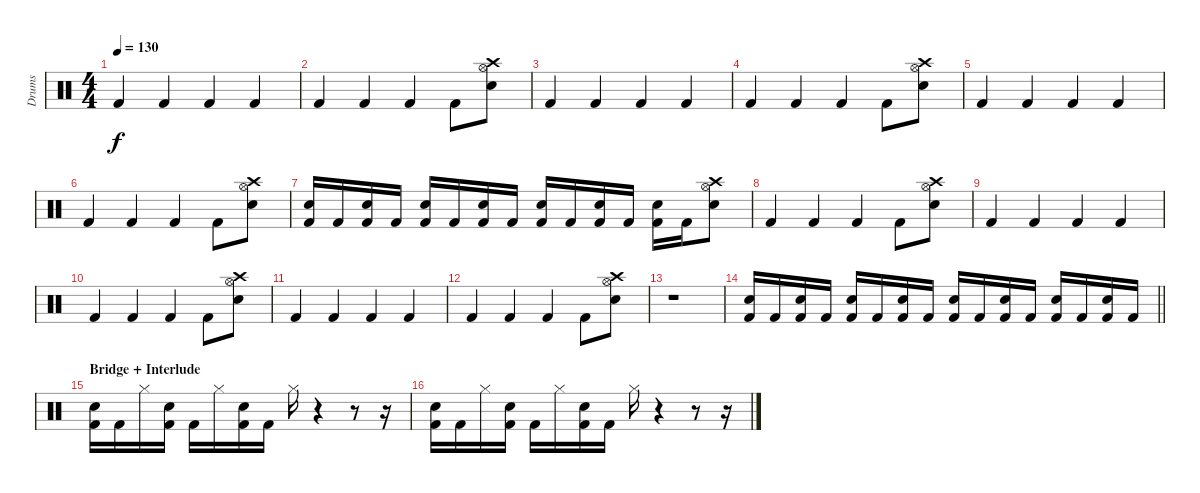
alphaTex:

\track ("Drums" "Drums") {instrument percussion}
\staff
\articulation defaults
\ts (4 4)
\tempo 130
\clef neutral
\ks c "Kick (hit) 2".4{dy f} "Kick (hit) 2".4 "Kick (hit) 2".4 "Kick (hit) 2".4
|
"Kick (hit) 2".4 "Kick (hit) 2".4 "Kick (hit) 2".4 "Kick (hit) 2".8 ("Crash high (hit)" "Snare (hit) 2" "Hi-Hat (open)").8 |
"Kick (hit) 2".4 "Kick (hit) 2".4 "Kick (hit) 2".4 "Kick (hit) 2".4 |
"Kick (hit) 2".4 "Kick (hit) 2".4 "Kick (hit) 2".4 "Kick (hit) 2".8 ("Crash high (hit)" "Snare (hit) 2" "Hi-Hat (open)").8 |
"Kick (hit) 2".4 "Kick (hit) 2".4 "Kick (hit) 2".4 "Kick (hit) 2".4 |
"Kick (hit) 2".4 "Kick (hit) 2".4 "Kick (hit) 2".4 "Kick (hit) 2".8 ("Crash high (hit)" "Snare (hit) 2" "Hi-Hat (open)").8 |
("Snare (hit) 2" "Kick (hit) 2").16 "Kick (hit) 2".16 ("Snare (hit) 2" "Kick (hit) 2").16 "Kick (hit) 2".16 ("Snare (hit) 2" "Kick (hit) 2").16 "Kick (hit) 2".16 ("Snare (hit) 2" "Kick (hit) 2").16 "Kick (hit) 2".16 ("Snare (hit) 2" "Kick (hit) 2").16 "Kick (hit) 2".16 ("Snare (hit) 2" "Kick (hit) 2").16 "Kick (hit) 2".16 ("Snare (hit) 2" "Kick (hit) 2").16 "Kick (hit) 2".16 ("Crash high (hit)" "Snare (hit) 2" "Hi-Hat (open)").8 |
"Kick (hit) 2".4 "Kick (hit) 2".4 "Kick (hit) 2".4 "Kick (hit) 2".8 ("Crash high (hit)" "Snare (hit) 2" "Hi-Hat (open)").8 |
"Kick (hit) 2".4 "Kick (hit) 2".4 "Kick (hit) 2".4 "Kick (hit) 2".4 |
"Kick (hit) 2".4 "Kick (hit) 2".4 "Kick (hit) 2".4 "Kick (hit) 2".8 ("Crash high (hit)" "Snare (hit) 2" "Hi-Hat (open)").8 |
"Kick (hit) 2".4 "Kick (hit) 2".4 "Kick (hit) 2".4 "Kick (hit) 2".4 |
"Kick (hit) 2".4 "Kick (hit) 2".4 "Kick (hit) 2".4 "Kick (hit) 2".8 ("Crash high (hit)" "Snare (hit) 2" "Hi-Hat (open)").8 |
r.1 |
\barLineRight lightlight
("Snare (hit) 2" "Kick (hit) 2").16 "Kick (hit) 2".16 ("Snare (hit) 2" "Kick (hit) 2").16 "Kick (hit) 2".16 ("Snare (hit) 2" "Kick (hit) 2").16 "Kick (hit) 2".16 ("Snare (hit) 2" "Kick (hit) 2").16 "Kick (hit) 2".16 ("Snare (hit) 2" "Kick (hit) 2").16 "Kick (hit) 2".16 ("Snare (hit) 2" "Kick (hit) 2").16 "Kick (hit) 2".16 ("Snare (hit) 2" "Kick (hit) 2").16 "Kick (hit) 2".16 ("Snare (hit) 2" "Kick (hit) 2").16 "Kick (hit) 2".16 |
\section ("" "Bridge + Interlude")
("Snare (hit) 2" "Kick (hit) 2").16 "Kick (hit) 2".16 "Hi-Hat (closed)".16 ("Snare (hit) 2" "Kick (hit) 2").16 "Kick (hit) 2".16 "Hi-Hat (closed)".16 ("Snare (hit) 2" "Kick (hit) 2").16 "Kick (hit) 2".16 "Hi-Hat (closed)".16 r.4 r.8 r.16 |
("Snare (hit) 2" "Kick (hit) 2").16 "Kick (hit) 2".16 "Hi-Hat (closed)".16 ("Snare (hit) 2" "Kick (hit) 2").16 "Kick (hit) 2".16 "Hi-Hat (closed)".16 ("Snare (hit) 2" "Kick (hit) 2").16 "Kick (hit) 2".16 "Hi-Hat (closed)".16 r.4 r.8 r.16
